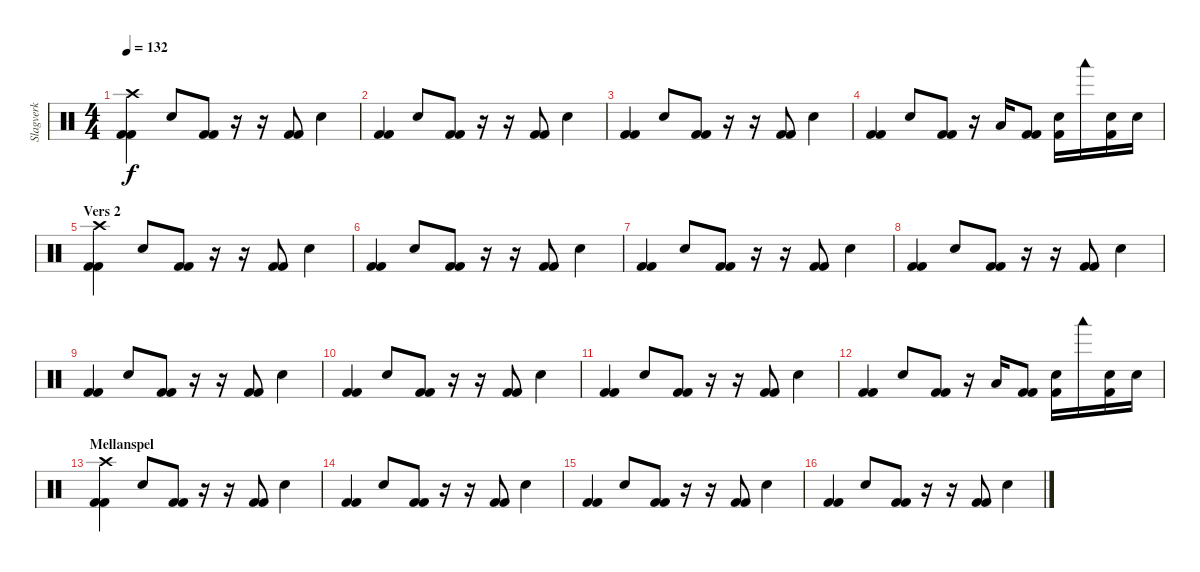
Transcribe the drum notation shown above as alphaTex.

\track ("Slagverk" "Slagverk") {instrument percussion}
\staff {score}
\articulation defaults
\ts (4 4)
\tempo 132
\clef neutral
\ks c
("Kick (hit) 2" "Kick (hit) 2" "Crash high (hit)").4{dy f} "Electric Snare (hit)".8 ("Kick (hit) 2" "Kick (hit) 2").8 r.16 r.16 ("Kick (hit) 2" "Kick (hit) 2").8 "Electric Snare (hit)".4 |
("Kick (hit) 2" "Kick (hit) 2").4 "Electric Snare (hit)".8 ("Kick (hit) 2" "Kick (hit) 2").8 r.16 r.16 ("Kick (hit) 2" "Kick (hit) 2").8 "Electric Snare (hit)".4 |
("Kick (hit) 2" "Kick (hit) 2").4 "Electric Snare (hit)".8 ("Kick (hit) 2" "Kick (hit) 2").8 r.16 r.16 ("Kick (hit) 2" "Kick (hit) 2").8 "Electric Snare (hit)".4 |
("Kick (hit) 2" "Kick (hit) 2").4 "Electric Snare (hit)".8 ("Kick (hit) 2" "Kick (hit) 2").8 r.16 "Low Tom (hit)".16 ("Kick (hit) 2" "Kick (hit) 2").8 ("Electric Snare (hit)" "Kick (hit) 2").16 "Woodblock low (hit)".16 ("Electric Snare (hit)" "Kick (hit) 2").16 "Electric Snare (hit)".16 |
\section ("" "Vers 2")
("Kick (hit) 2" "Kick (hit) 2" "Crash high (hit)").4 "Electric Snare (hit)".8 ("Kick (hit) 2" "Kick (hit) 2").8 r.16 r.16 ("Kick (hit) 2" "Kick (hit) 2").8 "Electric Snare (hit)".4 |
("Kick (hit) 2" "Kick (hit) 2").4 "Electric Snare (hit)".8 ("Kick (hit) 2" "Kick (hit) 2").8 r.16 r.16 ("Kick (hit) 2" "Kick (hit) 2").8 "Electric Snare (hit)".4 |
("Kick (hit) 2" "Kick (hit) 2").4 "Electric Snare (hit)".8 ("Kick (hit) 2" "Kick (hit) 2").8 r.16 r.16 ("Kick (hit) 2" "Kick (hit) 2").8 "Electric Snare (hit)".4 |
("Kick (hit) 2" "Kick (hit) 2").4 "Electric Snare (hit)".8 ("Kick (hit) 2" "Kick (hit) 2").8 r.16 r.16 ("Kick (hit) 2" "Kick (hit) 2").8 "Electric Snare (hit)".4 |
("Kick (hit) 2" "Kick (hit) 2").4 "Electric Snare (hit)".8 ("Kick (hit) 2" "Kick (hit) 2").8 r.16 r.16 ("Kick (hit) 2" "Kick (hit) 2").8 "Electric Snare (hit)".4 |
("Kick (hit) 2" "Kick (hit) 2").4 "Electric Snare (hit)".8 ("Kick (hit) 2" "Kick (hit) 2").8 r.16 r.16 ("Kick (hit) 2" "Kick (hit) 2").8 "Electric Snare (hit)".4 |
("Kick (hit) 2" "Kick (hit) 2").4 "Electric Snare (hit)".8 ("Kick (hit) 2" "Kick (hit) 2").8 r.16 r.16 ("Kick (hit) 2" "Kick (hit) 2").8 "Electric Snare (hit)".4 |
("Kick (hit) 2" "Kick (hit) 2").4 "Electric Snare (hit)".8 ("Kick (hit) 2" "Kick (hit) 2").8 r.16 "Low Tom (hit)".16 ("Kick (hit) 2" "Kick (hit) 2").8 ("Electric Snare (hit)" "Kick (hit) 2").16 "Woodblock low (hit)".16 ("Electric Snare (hit)" "Kick (hit) 2").16 "Electric Snare (hit)".16 |
\section ("" "Mellanspel")
("Kick (hit) 2" "Kick (hit) 2" "Crash high (hit)").4 "Electric Snare (hit)".8 ("Kick (hit) 2" "Kick (hit) 2").8 r.16 r.16 ("Kick (hit) 2" "Kick (hit) 2").8 "Electric Snare (hit)".4 |
("Kick (hit) 2" "Kick (hit) 2").4 "Electric Snare (hit)".8 ("Kick (hit) 2" "Kick (hit) 2").8 r.16 r.16 ("Kick (hit) 2" "Kick (hit) 2").8 "Electric Snare (hit)".4 |
("Kick (hit) 2" "Kick (hit) 2").4 "Electric Snare (hit)".8 ("Kick (hit) 2" "Kick (hit) 2").8 r.16 r.16 ("Kick (hit) 2" "Kick (hit) 2").8 "Electric Snare (hit)".4 |
("Kick (hit) 2" "Kick (hit) 2").4 "Electric Snare (hit)".8 ("Kick (hit) 2" "Kick (hit) 2").8 r.16 r.16 ("Kick (hit) 2" "Kick (hit) 2").8 "Electric Snare (hit)".4
